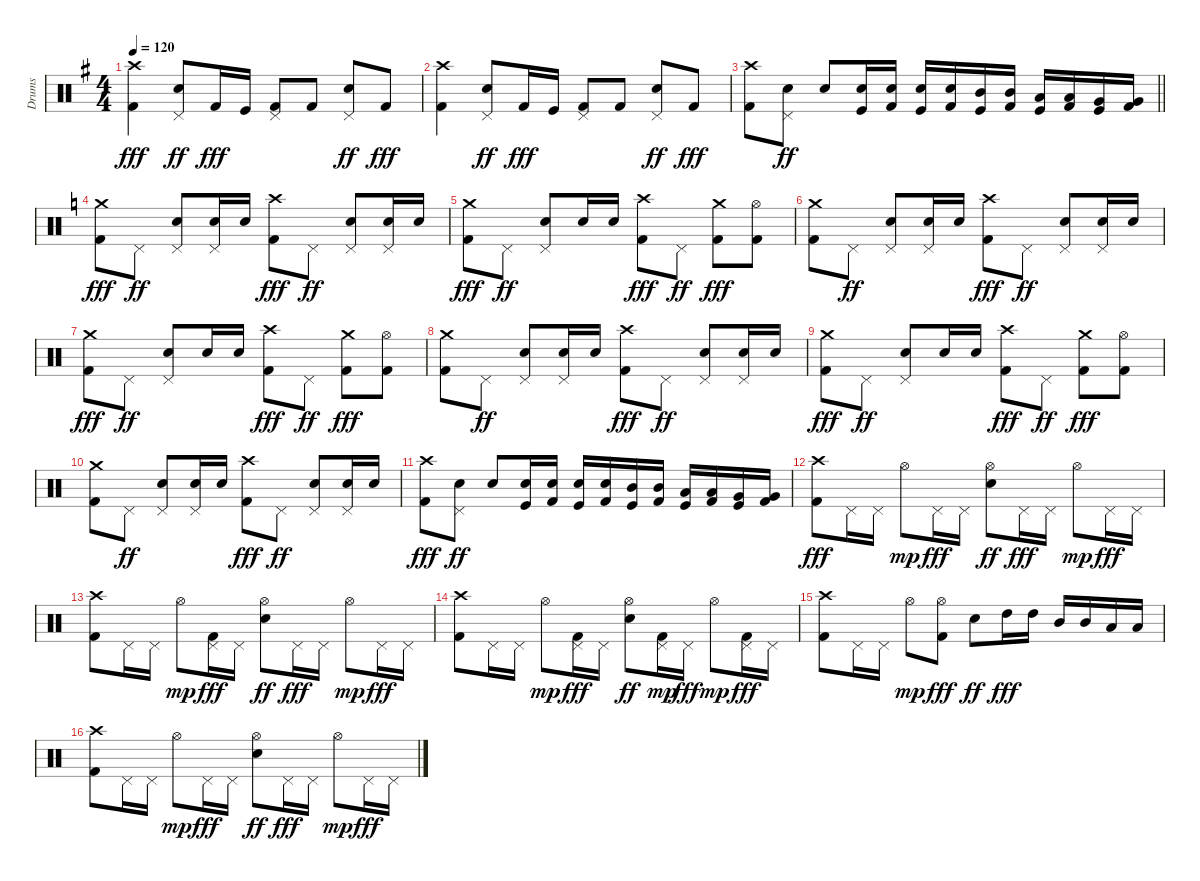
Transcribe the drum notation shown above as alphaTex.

\track ("Drums" "Drums") {instrument percussion}
\staff {score}
\articulation defaults
\ts (4 4)
\tempo 120
\clef neutral
\ks g
("Crash high (hit)" "Kick (hit) 2").4{dy fff} ("Pedal Hi-Hat (hit)" "Snare (hit) 2").8{dy ff} "Kick (hit) 2".16{dy fff} "Kick (hit)".16 ("Pedal Hi-Hat (hit)" "Kick (hit) 2").8 "Kick (hit) 2".8 ("Pedal Hi-Hat (hit)" "Snare (hit) 2").8{dy ff} "Kick (hit) 2".8{dy fff} |
("Crash high (hit)" "Kick (hit) 2").4 ("Pedal Hi-Hat (hit)" "Snare (hit) 2").8{dy ff} "Kick (hit) 2".16{dy fff} "Kick (hit)".16 ("Pedal Hi-Hat (hit)" "Kick (hit) 2").8 "Kick (hit) 2".8 ("Pedal Hi-Hat (hit)" "Snare (hit) 2").8{dy ff} "Kick (hit) 2".8{dy fff} |
\barLineRight lightlight
("Crash high (hit)" "Kick (hit) 2").8 ("Pedal Hi-Hat (hit)" "Snare (hit) 2").8{dy ff} "Snare (hit) 2".8 ("Snare (hit) 2" "Kick (hit)").16 ("Snare (hit) 2" "Kick (hit) 2").16 ("Snare (hit) 2" "Kick (hit)").16 ("Snare (hit) 2" "Kick (hit) 2").16 ("Mid Tom (hit)" "Kick (hit)").16 ("Mid Tom (hit)" "Kick (hit) 2").16 ("Low Tom (hit)" "Kick (hit)").16 ("Low Tom (hit)" "Kick (hit) 2").16 ("Very Low Tom (hit)" "Kick (hit)").16 ("Very Low Tom (hit)" "Kick (hit) 2").16 |
\ks c
("Crash medium (hit)" "Kick (hit) 2").8{dy fff} "Pedal Hi-Hat (hit)".8{dy ff} ("Pedal Hi-Hat (hit)" "Snare (hit) 2").8 ("Pedal Hi-Hat (hit)" "Snare (hit) 2").16 "Snare (hit) 2".16 ("Crash high (hit)" "Kick (hit) 2").8{dy fff} "Pedal Hi-Hat (hit)".8{dy ff} ("Pedal Hi-Hat (hit)" "Snare (hit) 2").8 ("Pedal Hi-Hat (hit)" "Snare (hit) 2").16 "Snare (hit) 2".16 |
("Crash medium (hit)" "Kick (hit) 2").8{dy fff} "Pedal Hi-Hat (hit)".8{dy ff} ("Pedal Hi-Hat (hit)" "Snare (hit) 2").8 "Snare (hit) 2".16 "Snare (hit) 2".16 ("Crash high (hit)" "Kick (hit) 2").8{dy fff} "Pedal Hi-Hat (hit)".8{dy ff} ("Crash medium (hit)" "Kick (hit) 2").8{dy fff} ("Hi-Hat (open)" "Kick (hit) 2").8 |
("Crash medium (hit)" "Kick (hit) 2").8 "Pedal Hi-Hat (hit)".8{dy ff} ("Pedal Hi-Hat (hit)" "Snare (hit) 2").8 ("Pedal Hi-Hat (hit)" "Snare (hit) 2").16 "Snare (hit) 2".16 ("Crash high (hit)" "Kick (hit) 2").8{dy fff} "Pedal Hi-Hat (hit)".8{dy ff} ("Pedal Hi-Hat (hit)" "Snare (hit) 2").8 ("Pedal Hi-Hat (hit)" "Snare (hit) 2").16 "Snare (hit) 2".16 |
("Crash medium (hit)" "Kick (hit) 2").8{dy fff} "Pedal Hi-Hat (hit)".8{dy ff} ("Pedal Hi-Hat (hit)" "Snare (hit) 2").8 "Snare (hit) 2".16 "Snare (hit) 2".16 ("Crash high (hit)" "Kick (hit) 2").8{dy fff} "Pedal Hi-Hat (hit)".8{dy ff} ("Crash medium (hit)" "Kick (hit) 2").8{dy fff} ("Hi-Hat (open)" "Kick (hit) 2").8 |
("Crash medium (hit)" "Kick (hit) 2").8 "Pedal Hi-Hat (hit)".8{dy ff} ("Pedal Hi-Hat (hit)" "Snare (hit) 2").8 ("Pedal Hi-Hat (hit)" "Snare (hit) 2").16 "Snare (hit) 2".16 ("Crash high (hit)" "Kick (hit) 2").8{dy fff} "Pedal Hi-Hat (hit)".8{dy ff} ("Pedal Hi-Hat (hit)" "Snare (hit) 2").8 ("Pedal Hi-Hat (hit)" "Snare (hit) 2").16 "Snare (hit) 2".16 |
("Crash medium (hit)" "Kick (hit) 2").8{dy fff} "Pedal Hi-Hat (hit)".8{dy ff} ("Pedal Hi-Hat (hit)" "Snare (hit) 2").8 "Snare (hit) 2".16 "Snare (hit) 2".16 ("Crash high (hit)" "Kick (hit) 2").8{dy fff} "Pedal Hi-Hat (hit)".8{dy ff} ("Crash medium (hit)" "Kick (hit) 2").8{dy fff} ("Hi-Hat (open)" "Kick (hit) 2").8 |
("Crash medium (hit)" "Kick (hit) 2").8 "Pedal Hi-Hat (hit)".8{dy ff} ("Pedal Hi-Hat (hit)" "Snare (hit) 2").8 ("Pedal Hi-Hat (hit)" "Snare (hit) 2").16 "Snare (hit) 2".16 ("Crash high (hit)" "Kick (hit) 2").8{dy fff} "Pedal Hi-Hat (hit)".8{dy ff} ("Pedal Hi-Hat (hit)" "Snare (hit) 2").8 ("Pedal Hi-Hat (hit)" "Snare (hit) 2").16 "Snare (hit) 2".16 |
("Crash high (hit)" "Kick (hit) 2").8{dy fff} ("Pedal Hi-Hat (hit)" "Snare (hit) 2").8{dy ff} "Snare (hit) 2".8 ("Snare (hit) 2" "Kick (hit)").16 ("Snare (hit) 2" "Kick (hit) 2").16 ("Snare (hit) 2" "Kick (hit)").16 ("Snare (hit) 2" "Kick (hit) 2").16 ("Mid Tom (hit)" "Kick (hit)").16 ("Mid Tom (hit)" "Kick (hit) 2").16 ("Low Tom (hit)" "Kick (hit)").16 ("Low Tom (hit)" "Kick (hit) 2").16 ("Very Low Tom (hit)" "Kick (hit)").16 ("Very Low Tom (hit)" "Kick (hit) 2").16 |
("Crash high (hit)" "Kick (hit) 2").8{dy fff} "Pedal Hi-Hat (hit)".16 "Pedal Hi-Hat (hit)".16 "Hi-Hat (open)".8{dy mp} "Pedal Hi-Hat (hit)".16{dy fff} "Pedal Hi-Hat (hit)".16 ("Hi-Hat (open)" "Snare (hit) 2").8{dy ff} "Pedal Hi-Hat (hit)".16{dy fff} "Pedal Hi-Hat (hit)".16 "Hi-Hat (open)".8{dy mp} "Pedal Hi-Hat (hit)".16{dy fff} "Pedal Hi-Hat (hit)".16 |
("Crash high (hit)" "Kick (hit) 2").8 "Pedal Hi-Hat (hit)".16 "Pedal Hi-Hat (hit)".16 "Hi-Hat (open)".8{dy mp} ("Pedal Hi-Hat (hit)" "Kick (hit) 2").16{dy fff} "Pedal Hi-Hat (hit)".16 ("Hi-Hat (open)" "Snare (hit) 2").8{dy ff} "Pedal Hi-Hat (hit)".16{dy fff} "Pedal Hi-Hat (hit)".16 "Hi-Hat (open)".8{dy mp} "Pedal Hi-Hat (hit)".16{dy fff} "Pedal Hi-Hat (hit)".16 |
("Crash high (hit)" "Kick (hit) 2").8 "Pedal Hi-Hat (hit)".16 "Pedal Hi-Hat (hit)".16 "Hi-Hat (open)".8{dy mp} ("Pedal Hi-Hat (hit)" "Kick (hit) 2").16{dy fff} "Pedal Hi-Hat (hit)".16 ("Hi-Hat (open)" "Snare (hit) 2").8{dy ff} ("Pedal Hi-Hat (hit)" "Kick (hit) 2").16{dy mp} "Pedal Hi-Hat (hit)".16{dy fff} "Hi-Hat (open)".8{dy mp} ("Pedal Hi-Hat (hit)" "Kick (hit) 2").16{dy fff} "Pedal Hi-Hat (hit)".16 |
("Crash high (hit)" "Kick (hit) 2").8 "Pedal Hi-Hat (hit)".16 "Pedal Hi-Hat (hit)".16 "Hi-Hat (open)".8{dy mp} ("Hi-Hat (open)" "Kick (hit) 2").8{dy fff} "Snare (hit) 2".8{dy ff} "High Tom (hit)".16{dy fff} "High Tom (hit)".16 "Mid Tom (hit)".16 "Mid Tom (hit)".16 "Low Tom (hit)".16 "Low Tom (hit)".16 |
("Crash high (hit)" "Kick (hit) 2").8 "Pedal Hi-Hat (hit)".16 "Pedal Hi-Hat (hit)".16 "Hi-Hat (open)".8{dy mp} "Pedal Hi-Hat (hit)".16{dy fff} "Pedal Hi-Hat (hit)".16 ("Hi-Hat (open)" "Snare (hit) 2").8{dy ff} "Pedal Hi-Hat (hit)".16{dy fff} "Pedal Hi-Hat (hit)".16 "Hi-Hat (open)".8{dy mp} "Pedal Hi-Hat (hit)".16{dy fff} "Pedal Hi-Hat (hit)".16
